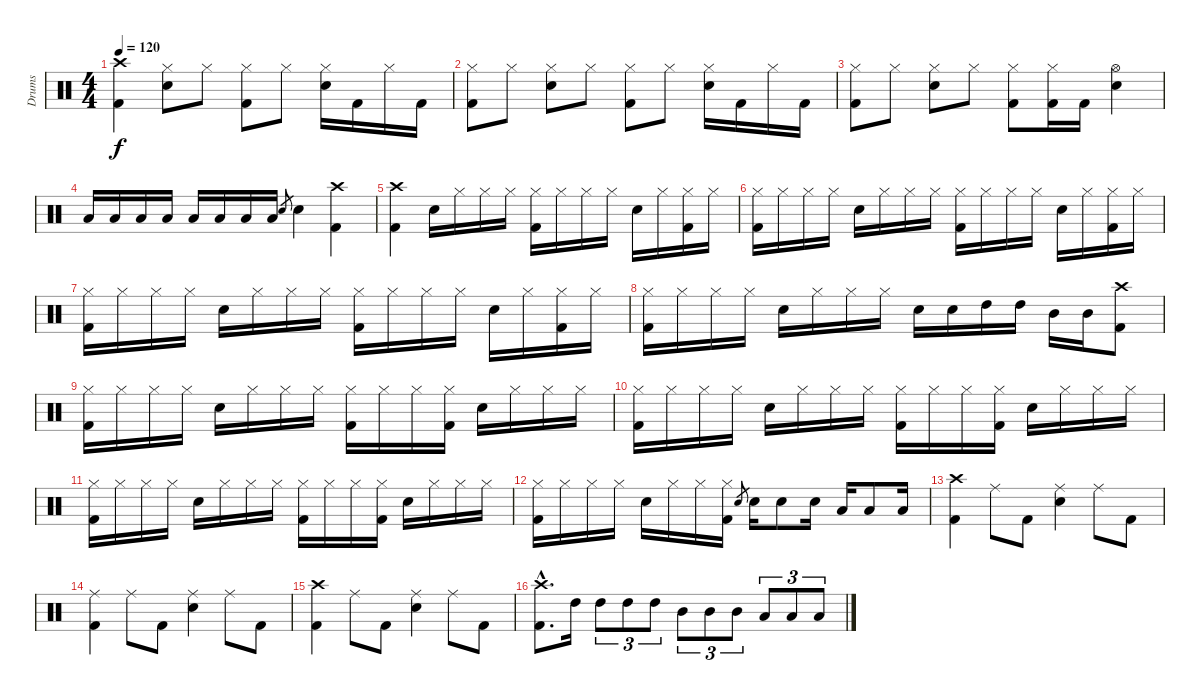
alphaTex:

\track ("Drums" "Drums") {instrument percussion}
\staff {score}
\articulation defaults
\ts (4 4)
\tempo 120
\clef neutral
\ks c
("Crash high (hit)" "Kick (hit) 2").4{dy f} ("Hi-Hat (closed)" "Electric Snare (hit)").8 "Hi-Hat (closed)".8 ("Hi-Hat (closed)" "Kick (hit) 2").8 "Hi-Hat (closed)".8 ("Hi-Hat (closed)" "Electric Snare (hit)").16 "Kick (hit) 2".16 "Hi-Hat (closed)".16 "Kick (hit) 2".16 |
("Hi-Hat (closed)" "Kick (hit) 2").8 "Hi-Hat (closed)".8 ("Hi-Hat (closed)" "Electric Snare (hit)").8 "Hi-Hat (closed)".8 ("Hi-Hat (closed)" "Kick (hit) 2").8 "Hi-Hat (closed)".8 ("Hi-Hat (closed)" "Electric Snare (hit)").16 "Kick (hit) 2".16 "Hi-Hat (closed)".16 "Kick (hit) 2".16 |
("Hi-Hat (closed)" "Kick (hit) 2").8 "Hi-Hat (closed)".8 ("Hi-Hat (closed)" "Electric Snare (hit)").8 "Hi-Hat (closed)".8 ("Hi-Hat (closed)" "Kick (hit) 2").8 ("Hi-Hat (closed)" "Kick (hit) 2").16 "Kick (hit) 2".16 ("Hi-Hat (open)" "Electric Snare (hit)").4 |
"Low Tom (hit)".16 "Low Tom (hit)".16 "Low Tom (hit)".16 "Low Tom (hit)".16 "Low Tom (hit)".16 "Low Tom (hit)".16 "Low Tom (hit)".16 "Low Tom (hit)".16 "Electric Snare (hit)".8{gr} "Electric Snare (hit)".4 ("Crash high (hit)" "Kick (hit) 2").4 |
("Crash high (hit)" "Kick (hit) 2").4 "Electric Snare (hit)".16 "Hi-Hat (closed)".16 "Hi-Hat (closed)".16 "Hi-Hat (closed)".16 ("Hi-Hat (closed)" "Kick (hit) 2").16 "Hi-Hat (closed)".16 "Hi-Hat (closed)".16 "Hi-Hat (closed)".16 "Electric Snare (hit)".16 "Hi-Hat (closed)".16 ("Hi-Hat (closed)" "Kick (hit) 2").16 "Hi-Hat (closed)".16 |
("Hi-Hat (closed)" "Kick (hit) 2").16 "Hi-Hat (closed)".16 "Hi-Hat (closed)".16 "Hi-Hat (closed)".16 "Electric Snare (hit)".16 "Hi-Hat (closed)".16 "Hi-Hat (closed)".16 "Hi-Hat (closed)".16 ("Hi-Hat (closed)" "Kick (hit) 2").16 "Hi-Hat (closed)".16 "Hi-Hat (closed)".16 "Hi-Hat (closed)".16 "Electric Snare (hit)".16 "Hi-Hat (closed)".16 ("Hi-Hat (closed)" "Kick (hit) 2").16 "Hi-Hat (closed)".16 |
("Hi-Hat (closed)" "Kick (hit) 2").16 "Hi-Hat (closed)".16 "Hi-Hat (closed)".16 "Hi-Hat (closed)".16 "Electric Snare (hit)".16 "Hi-Hat (closed)".16 "Hi-Hat (closed)".16 "Hi-Hat (closed)".16 ("Hi-Hat (closed)" "Kick (hit) 2").16 "Hi-Hat (closed)".16 "Hi-Hat (closed)".16 "Hi-Hat (closed)".16 "Electric Snare (hit)".16 "Hi-Hat (closed)".16 ("Hi-Hat (closed)" "Kick (hit) 2").16 "Hi-Hat (closed)".16 |
("Hi-Hat (closed)" "Kick (hit) 2").16 "Hi-Hat (closed)".16 "Hi-Hat (closed)".16 "Hi-Hat (closed)".16 "Electric Snare (hit)".16 "Hi-Hat (closed)".16 "Hi-Hat (closed)".16 "Hi-Hat (closed)".16 "Electric Snare (hit)".16 "Electric Snare (hit)".16 "High Tom (hit)".16 "High Tom (hit)".16 "Mid Tom (hit)".16 "Mid Tom (hit)".16 ("Crash high (hit)" "Kick (hit) 2").8 |
("Hi-Hat (closed)" "Kick (hit) 2").16 "Hi-Hat (closed)".16 "Hi-Hat (closed)".16 "Hi-Hat (closed)".16 "Electric Snare (hit)".16 "Hi-Hat (closed)".16 "Hi-Hat (closed)".16 "Hi-Hat (closed)".16 ("Hi-Hat (closed)" "Kick (hit) 2").16 "Hi-Hat (closed)".16 "Hi-Hat (closed)".16 ("Hi-Hat (closed)" "Kick (hit) 2").16 "Electric Snare (hit)".16 "Hi-Hat (closed)".16 "Hi-Hat (closed)".16 "Hi-Hat (closed)".16 |
("Hi-Hat (closed)" "Kick (hit) 2").16 "Hi-Hat (closed)".16 "Hi-Hat (closed)".16 "Hi-Hat (closed)".16 "Electric Snare (hit)".16 "Hi-Hat (closed)".16 "Hi-Hat (closed)".16 "Hi-Hat (closed)".16 ("Hi-Hat (closed)" "Kick (hit) 2").16 "Hi-Hat (closed)".16 "Hi-Hat (closed)".16 ("Hi-Hat (closed)" "Kick (hit) 2").16 "Electric Snare (hit)".16 "Hi-Hat (closed)".16 "Hi-Hat (closed)".16 "Hi-Hat (closed)".16 |
("Hi-Hat (closed)" "Kick (hit) 2").16 "Hi-Hat (closed)".16 "Hi-Hat (closed)".16 "Hi-Hat (closed)".16 "Electric Snare (hit)".16 "Hi-Hat (closed)".16 "Hi-Hat (closed)".16 "Hi-Hat (closed)".16 ("Hi-Hat (closed)" "Kick (hit) 2").16 "Hi-Hat (closed)".16 "Hi-Hat (closed)".16 ("Hi-Hat (closed)" "Kick (hit) 2").16 "Electric Snare (hit)".16 "Hi-Hat (closed)".16 "Hi-Hat (closed)".16 "Hi-Hat (closed)".16 |
("Hi-Hat (closed)" "Kick (hit) 2").16 "Hi-Hat (closed)".16 "Hi-Hat (closed)".16 "Hi-Hat (closed)".16 "Electric Snare (hit)".16 "Hi-Hat (closed)".16 "Hi-Hat (closed)".16 ("Hi-Hat (closed)" "Kick (hit) 2").16 "Electric Snare (hit)".8{gr} "Electric Snare (hit)".16 "Electric Snare (hit)".8 "Electric Snare (hit)".16 "Low Tom (hit)".16 "Low Tom (hit)".8 "Low Tom (hit)".16 |
("Crash high (hit)" "Kick (hit) 2").4 "Ride (middle)".8 "Kick (hit) 2".8 ("Ride (middle)" "Electric Snare (hit)").4 "Ride (middle)".8 "Kick (hit) 2".8 |
("Ride (middle)" "Kick (hit) 2").4 "Ride (middle)".8 "Kick (hit) 2".8 ("Ride (middle)" "Electric Snare (hit)").4 "Ride (middle)".8 "Kick (hit) 2".8 |
("Crash high (hit)" "Kick (hit) 2").4 "Ride (middle)".8 "Kick (hit) 2".8 ("Ride (middle)" "Electric Snare (hit)").4 "Ride (middle)".8 "Kick (hit) 2".8 |
("Crash high (hit)"{hac} "Kick (hit) 2"{hac}).8{d} "High Tom (hit)".16 "High Tom (hit)".8{tu (3 2)} "High Tom (hit)".8{tu (3 2)} "High Tom (hit)".8{tu (3 2)} "Mid Tom (hit)".8{tu (3 2)} "Mid Tom (hit)".8{tu (3 2)} "Mid Tom (hit)".8{tu (3 2)} "Low Tom (hit)".8{tu (3 2)} "Low Tom (hit)".8{tu (3 2)} "Low Tom (hit)".8{tu (3 2)}
